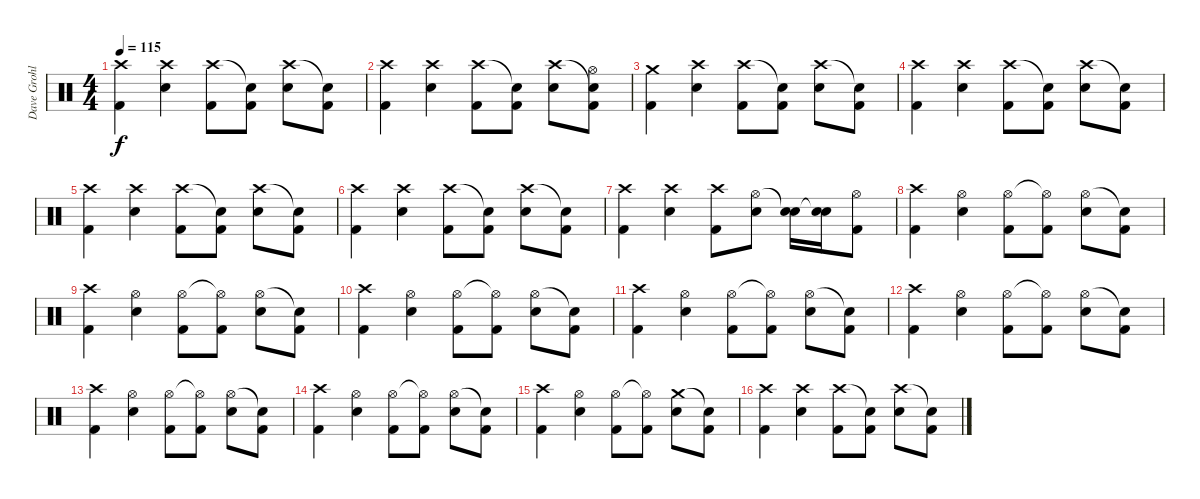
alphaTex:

\track ("Dave Grohl - Drums" "Dave Grohl") {instrument percussion}
\staff {score}
\articulation defaults
\ts (4 4)
\tempo 115
\clef neutral
\ks c
("Crash high (hit)" "Kick (hit) 2").4{dy f} ("Crash high (hit)" "Electric Snare (hit)").4 ("Crash high (hit)" "Kick (hit) 2").8 ("Snare (hit)"{t} "Kick (hit) 2").8 ("Crash high (hit)" "Electric Snare (hit)").8 ("Snare (hit)"{t} "Kick (hit) 2").8 |
("Crash high (hit)" "Kick (hit) 2").4 ("Crash high (hit)" "Electric Snare (hit)").4 ("Crash high (hit)" "Kick (hit) 2").8 ("Snare (hit)"{t} "Kick (hit) 2").8 ("Crash high (hit)" "Electric Snare (hit)").8 ("Snare (hit)"{t} "Hi-Hat (open)" "Kick (hit) 2").8 |
("Crash medium (hit)" "Kick (hit) 2").4 ("Crash high (hit)" "Electric Snare (hit)").4 ("Crash high (hit)" "Kick (hit) 2").8 ("Snare (hit)"{t} "Kick (hit) 2").8 ("Crash high (hit)" "Electric Snare (hit)").8 ("Snare (hit)"{t} "Kick (hit) 2").8 |
("Crash high (hit)" "Kick (hit) 2").4 ("Crash high (hit)" "Electric Snare (hit)").4 ("Crash high (hit)" "Kick (hit) 2").8 ("Snare (hit)"{t} "Kick (hit) 2").8 ("Crash high (hit)" "Electric Snare (hit)").8 ("Snare (hit)"{t} "Kick (hit) 2").8 |
("Crash high (hit)" "Kick (hit) 2").4 ("Crash high (hit)" "Electric Snare (hit)").4 ("Crash high (hit)" "Kick (hit) 2").8 ("Snare (hit)"{t} "Kick (hit) 2").8 ("Crash high (hit)" "Electric Snare (hit)").8 ("Snare (hit)"{t} "Kick (hit) 2").8 |
("Crash high (hit)" "Kick (hit) 2").4 ("Crash high (hit)" "Electric Snare (hit)").4 ("Crash high (hit)" "Kick (hit) 2").8 ("Snare (hit)"{t} "Kick (hit) 2").8 ("Crash high (hit)" "Electric Snare (hit)").8 ("Snare (hit)"{t} "Kick (hit) 2").8 |
("Crash high (hit)" "Kick (hit) 2").4 ("Crash high (hit)" "Electric Snare (hit)").4 ("Crash high (hit)" "Kick (hit) 2").8 ("Hi-Hat (open)" "Electric Snare (hit)").8 ("Snare (hit)"{t} "Electric Snare (hit)").16 ("Snare (hit)"{t} "Electric Snare (hit)").16 ("Hi-Hat (open)" "Kick (hit) 2").8 |
("Crash high (hit)" "Kick (hit) 2").4 ("Hi-Hat (open)" "Electric Snare (hit)").4 ("Hi-Hat (open)" "Kick (hit) 2").8 ("Hi-Hat (open)"{t} "Kick (hit) 2").8 ("Hi-Hat (open)" "Electric Snare (hit)").8 ("Snare (hit)"{t} "Kick (hit) 2").8 |
("Crash high (hit)" "Kick (hit) 2").4 ("Hi-Hat (open)" "Electric Snare (hit)").4 ("Hi-Hat (open)" "Kick (hit) 2").8 ("Hi-Hat (open)"{t} "Kick (hit) 2").8 ("Hi-Hat (open)" "Electric Snare (hit)").8 ("Snare (hit)"{t} "Kick (hit) 2").8 |
("Crash high (hit)" "Kick (hit) 2").4 ("Hi-Hat (open)" "Electric Snare (hit)").4 ("Hi-Hat (open)" "Kick (hit) 2").8 ("Hi-Hat (open)"{t} "Kick (hit) 2").8 ("Hi-Hat (open)" "Electric Snare (hit)").8 ("Snare (hit)"{t} "Kick (hit) 2").8 |
("Crash high (hit)" "Kick (hit) 2").4 ("Hi-Hat (open)" "Electric Snare (hit)").4 ("Hi-Hat (open)" "Kick (hit) 2").8 ("Hi-Hat (open)"{t} "Kick (hit) 2").8 ("Hi-Hat (open)" "Electric Snare (hit)").8 ("Snare (hit)"{t} "Kick (hit) 2").8 |
("Crash high (hit)" "Kick (hit) 2").4 ("Hi-Hat (open)" "Electric Snare (hit)").4 ("Hi-Hat (open)" "Kick (hit) 2").8 ("Hi-Hat (open)"{t} "Kick (hit) 2").8 ("Hi-Hat (open)" "Electric Snare (hit)").8 ("Snare (hit)"{t} "Kick (hit) 2").8 |
("Crash high (hit)" "Kick (hit) 2").4 ("Hi-Hat (open)" "Electric Snare (hit)").4 ("Hi-Hat (open)" "Kick (hit) 2").8 ("Hi-Hat (open)"{t} "Kick (hit) 2").8 ("Hi-Hat (open)" "Electric Snare (hit)").8 ("Snare (hit)"{t} "Kick (hit) 2").8 |
("Crash high (hit)" "Kick (hit) 2").4 ("Hi-Hat (open)" "Electric Snare (hit)").4 ("Hi-Hat (open)" "Kick (hit) 2").8 ("Hi-Hat (open)"{t} "Kick (hit) 2").8 ("Hi-Hat (open)" "Electric Snare (hit)").8 ("Snare (hit)"{t} "Kick (hit) 2").8 |
("Crash high (hit)" "Kick (hit) 2").4 ("Hi-Hat (open)" "Electric Snare (hit)").4 ("Hi-Hat (open)" "Kick (hit) 2").8 ("Hi-Hat (open)"{t} "Kick (hit) 2").8 ("Crash medium (hit)" "Electric Snare (hit)").8 ("Snare (hit)"{t} "Kick (hit) 2").8 |
("Crash high (hit)" "Kick (hit) 2").4 ("Crash high (hit)" "Electric Snare (hit)").4 ("Crash high (hit)" "Kick (hit) 2").8 ("Snare (hit)"{t} "Kick (hit) 2").8 ("Crash high (hit)" "Electric Snare (hit)").8 ("Snare (hit)"{t} "Kick (hit) 2").8
